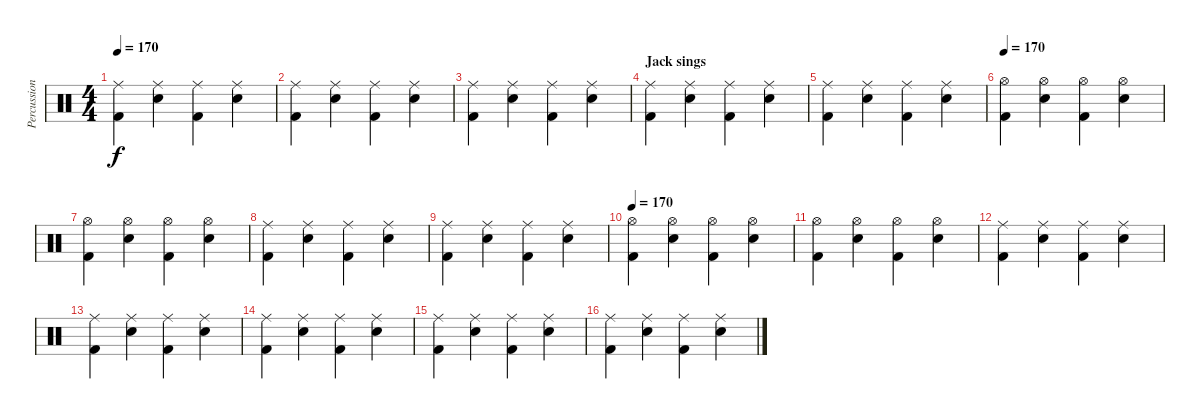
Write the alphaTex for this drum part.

\track ("Percussion" "Percussion") {instrument percussion}
\staff {score}
\articulation defaults
\ts (4 4)
\tempo 170
\clef neutral
\ks c
("Ride (middle)" "Kick (hit) 2").4{dy f} ("Ride (middle)" "Electric Snare (hit)").4 ("Ride (middle)" "Kick (hit) 2").4 ("Ride (middle)" "Electric Snare (hit)").4 |
("Ride (middle)" "Kick (hit) 2").4 ("Ride (middle)" "Electric Snare (hit)").4 ("Ride (middle)" "Kick (hit) 2").4 ("Ride (middle)" "Electric Snare (hit)").4 |
("Ride (middle)" "Kick (hit) 2").4 ("Ride (middle)" "Electric Snare (hit)").4 ("Ride (middle)" "Kick (hit) 2").4 ("Ride (middle)" "Electric Snare (hit)").4 |
\section ("" "Jack sings")
("Ride (middle)" "Kick (hit) 2").4 ("Ride (middle)" "Electric Snare (hit)").4 ("Ride (middle)" "Kick (hit) 2").4 ("Ride (middle)" "Electric Snare (hit)").4 |
("Ride (middle)" "Kick (hit) 2").4 ("Ride (middle)" "Electric Snare (hit)").4 ("Ride (middle)" "Kick (hit) 2").4 ("Ride (middle)" "Electric Snare (hit)").4 |
\tempo 170
("Hi-Hat (open)" "Kick (hit) 2").4 ("Hi-Hat (open)" "Electric Snare (hit)").4 ("Hi-Hat (open)" "Kick (hit) 2").4 ("Hi-Hat (open)" "Electric Snare (hit)").4 |
("Hi-Hat (open)" "Kick (hit) 2").4 ("Hi-Hat (open)" "Electric Snare (hit)").4 ("Hi-Hat (open)" "Kick (hit) 2").4 ("Hi-Hat (open)" "Electric Snare (hit)").4 |
("Ride (middle)" "Kick (hit) 2").4 ("Ride (middle)" "Electric Snare (hit)").4 ("Ride (middle)" "Kick (hit) 2").4 ("Ride (middle)" "Electric Snare (hit)").4 |
("Ride (middle)" "Kick (hit) 2").4 ("Ride (middle)" "Electric Snare (hit)").4 ("Ride (middle)" "Kick (hit) 2").4 ("Ride (middle)" "Electric Snare (hit)").4 |
\tempo 170
("Hi-Hat (open)" "Kick (hit) 2").4 ("Hi-Hat (open)" "Electric Snare (hit)").4 ("Hi-Hat (open)" "Kick (hit) 2").4 ("Hi-Hat (open)" "Electric Snare (hit)").4 |
("Hi-Hat (open)" "Kick (hit) 2").4 ("Hi-Hat (open)" "Electric Snare (hit)").4 ("Hi-Hat (open)" "Kick (hit) 2").4 ("Hi-Hat (open)" "Electric Snare (hit)").4 |
("Ride (middle)" "Kick (hit) 2").4 ("Ride (middle)" "Electric Snare (hit)").4 ("Ride (middle)" "Kick (hit) 2").4 ("Ride (middle)" "Electric Snare (hit)").4 |
("Ride (middle)" "Kick (hit) 2").4 ("Ride (middle)" "Electric Snare (hit)").4 ("Ride (middle)" "Kick (hit) 2").4 ("Ride (middle)" "Electric Snare (hit)").4 |
("Ride (middle)" "Kick (hit) 2").4 ("Ride (middle)" "Electric Snare (hit)").4 ("Ride (middle)" "Kick (hit) 2").4 ("Ride (middle)" "Electric Snare (hit)").4 |
("Ride (middle)" "Kick (hit) 2").4 ("Ride (middle)" "Electric Snare (hit)").4 ("Ride (middle)" "Kick (hit) 2").4 ("Ride (middle)" "Electric Snare (hit)").4 |
("Ride (middle)" "Kick (hit) 2").4 ("Ride (middle)" "Electric Snare (hit)").4 ("Ride (middle)" "Kick (hit) 2").4 ("Ride (middle)" "Electric Snare (hit)").4
